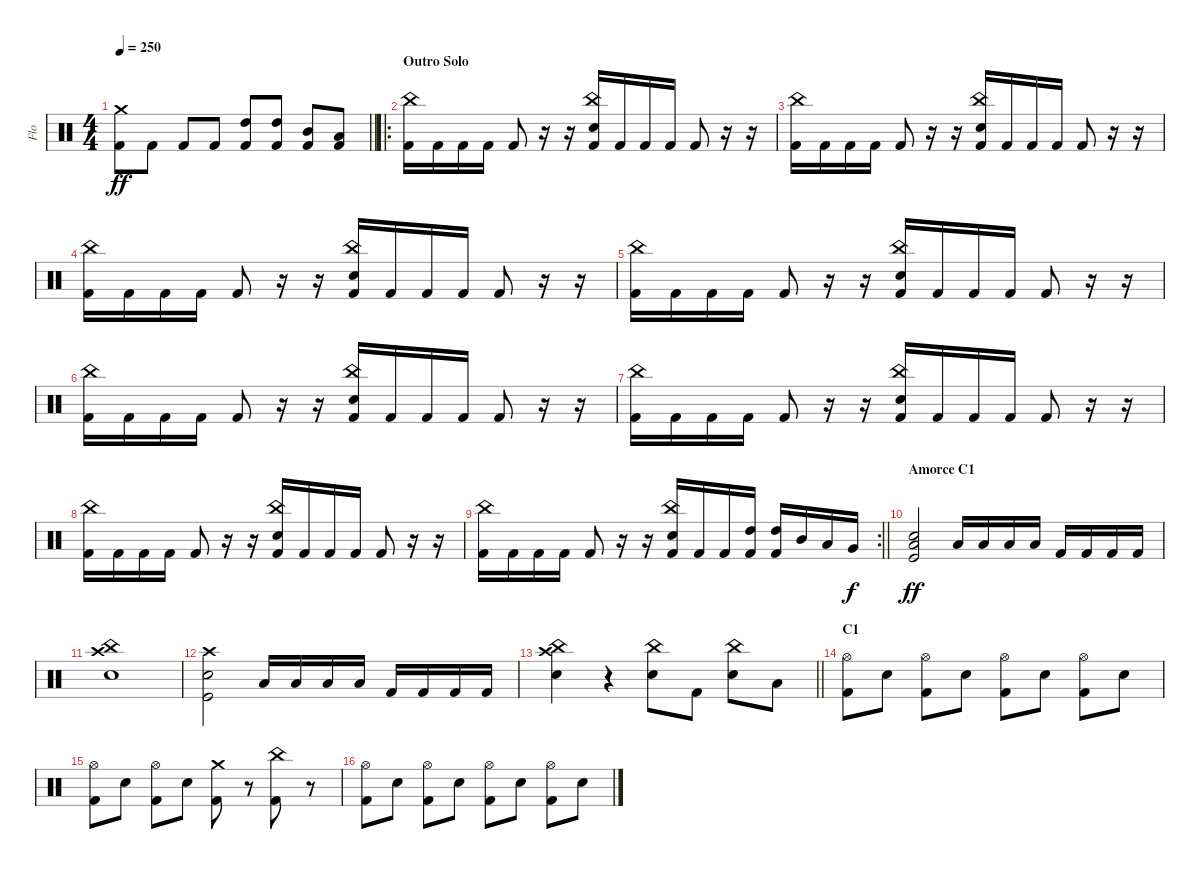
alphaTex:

\track ("Flo" "Flo") {instrument percussion}
\staff {score}
\articulation defaults
\ts (4 4)
\tempo 250
\clef neutral
\barLineRight lightlight
\ks c
("Crash medium (hit)" "Kick (hit) 2").8{dy ff} "Kick (hit) 2".8 "Kick (hit) 2".8 "Kick (hit) 2".8 ("High Tom (hit)" "Kick (hit) 2").8 ("High Tom (hit)" "Kick (hit) 2").8 ("Mid Tom (hit)" "Kick (hit) 2").8 ("Low Tom (hit)" "Kick (hit) 2").8 |
\ro
\section ("" "Outro Solo")
("China (hit)" "Kick (hit) 2").16 "Kick (hit) 2".16 "Kick (hit) 2".16 "Kick (hit) 2".16 "Kick (hit) 2".8 r.16 r.16 ("China (hit)" "Electric Snare (hit)" "Kick (hit) 2").16 "Kick (hit) 2".16 "Kick (hit) 2".16 "Kick (hit) 2".16 "Kick (hit) 2".8 r.16 r.16 |
("China (hit)" "Kick (hit) 2").16 "Kick (hit) 2".16 "Kick (hit) 2".16 "Kick (hit) 2".16 "Kick (hit) 2".8 r.16 r.16 ("China (hit)" "Electric Snare (hit)" "Kick (hit) 2").16 "Kick (hit) 2".16 "Kick (hit) 2".16 "Kick (hit) 2".16 "Kick (hit) 2".8 r.16 r.16 |
("China (hit)" "Kick (hit) 2").16 "Kick (hit) 2".16 "Kick (hit) 2".16 "Kick (hit) 2".16 "Kick (hit) 2".8 r.16 r.16 ("China (hit)" "Electric Snare (hit)" "Kick (hit) 2").16 "Kick (hit) 2".16 "Kick (hit) 2".16 "Kick (hit) 2".16 "Kick (hit) 2".8 r.16 r.16 |
("China (hit)" "Kick (hit) 2").16 "Kick (hit) 2".16 "Kick (hit) 2".16 "Kick (hit) 2".16 "Kick (hit) 2".8 r.16 r.16 ("China (hit)" "Electric Snare (hit)" "Kick (hit) 2").16 "Kick (hit) 2".16 "Kick (hit) 2".16 "Kick (hit) 2".16 "Kick (hit) 2".8 r.16 r.16 |
("China (hit)" "Kick (hit) 2").16 "Kick (hit) 2".16 "Kick (hit) 2".16 "Kick (hit) 2".16 "Kick (hit) 2".8 r.16 r.16 ("China (hit)" "Electric Snare (hit)" "Kick (hit) 2").16 "Kick (hit) 2".16 "Kick (hit) 2".16 "Kick (hit) 2".16 "Kick (hit) 2".8 r.16 r.16 |
("China (hit)" "Kick (hit) 2").16 "Kick (hit) 2".16 "Kick (hit) 2".16 "Kick (hit) 2".16 "Kick (hit) 2".8 r.16 r.16 ("China (hit)" "Electric Snare (hit)" "Kick (hit) 2").16 "Kick (hit) 2".16 "Kick (hit) 2".16 "Kick (hit) 2".16 "Kick (hit) 2".8 r.16 r.16 |
("China (hit)" "Kick (hit) 2").16 "Kick (hit) 2".16 "Kick (hit) 2".16 "Kick (hit) 2".16 "Kick (hit) 2".8 r.16 r.16 ("China (hit)" "Electric Snare (hit)" "Kick (hit) 2").16 "Kick (hit) 2".16 "Kick (hit) 2".16 "Kick (hit) 2".16 "Kick (hit) 2".8 r.16 r.16 |
\rc 2
\barLineRight lightlight
("China (hit)" "Kick (hit) 2").16 "Kick (hit) 2".16 "Kick (hit) 2".16 "Kick (hit) 2".16 "Kick (hit) 2".8 r.16 r.16 ("China (hit)" "Electric Snare (hit)" "Kick (hit) 2").16 "Kick (hit) 2".16 "Kick (hit) 2".16 ("High Tom (hit)" "Kick (hit) 2").16 ("High Tom (hit)" "Kick (hit) 2").16 "Mid Tom (hit)".16 "Low Tom (hit)".16 "Very Low Tom (hit)".16{dy f} |
\section ("" "Amorce C1")
("Kick (hit)" "Electric Snare (hit)" "Low Tom (hit)").2{dy ff} "Low Tom (hit)".16 "Low Tom (hit)".16 "Low Tom (hit)".16 "Low Tom (hit)".16 "Kick (hit) 2".16 "Kick (hit) 2".16 "Kick (hit) 2".16 "Kick (hit) 2".16 |
("China (hit)" "Electric Snare (hit)" "Crash high (hit)").1 |
("Kick (hit)" "Electric Snare (hit)" "Crash high (hit)").2 "Low Tom (hit)".16 "Low Tom (hit)".16 "Low Tom (hit)".16 "Low Tom (hit)".16 "Kick (hit) 2".16 "Kick (hit) 2".16 "Kick (hit) 2".16 "Kick (hit) 2".16 |
\barLineRight lightlight
("China (hit)" "Electric Snare (hit)" "Crash high (hit)").4 r.4 ("China (hit)" "Electric Snare (hit)").8 "Kick (hit) 2".8 ("China (hit)" "Electric Snare (hit)").8 "Low Tom (hit)".8 |
\section ("" "C1")
("Hi-Hat (open)" "Kick (hit) 2").8 "Electric Snare (hit)".8 ("Hi-Hat (open)" "Kick (hit) 2").8 "Electric Snare (hit)".8 ("Hi-Hat (open)" "Kick (hit) 2").8 "Electric Snare (hit)".8 ("Hi-Hat (open)" "Kick (hit) 2").8 "Electric Snare (hit)".8 |
("Hi-Hat (open)" "Kick (hit) 2").8 "Electric Snare (hit)".8 ("Hi-Hat (open)" "Kick (hit) 2").8 "Electric Snare (hit)".8 ("Crash medium (hit)" "Kick (hit) 2").8 r.8 ("China (hit)" "Kick (hit) 2").8 r.8 |
("Hi-Hat (open)" "Kick (hit) 2").8 "Electric Snare (hit)".8 ("Hi-Hat (open)" "Kick (hit) 2").8 "Electric Snare (hit)".8 ("Hi-Hat (open)" "Kick (hit) 2").8 "Electric Snare (hit)".8 ("Hi-Hat (open)" "Kick (hit) 2").8 "Electric Snare (hit)".8
